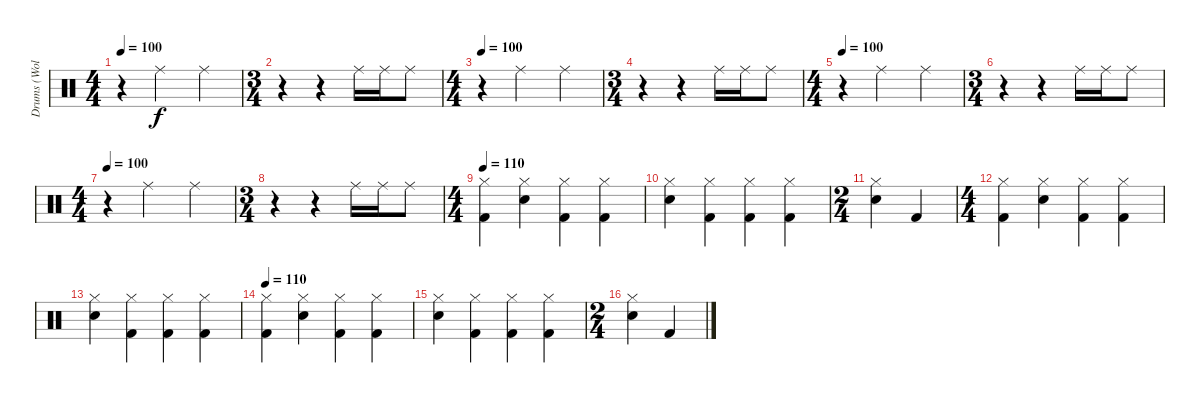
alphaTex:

\track ("Drums (Wolf Simons)" "Drums (Wol") {instrument percussion}
\staff {score}
\articulation defaults
\ts (4 4)
\tempo 100
\clef neutral
\ks c
r.4{dy f} "Ride (middle)".2 "Ride (middle)".4 |
\ts (3 4)
r.4 r.4 "Ride (middle)".16 "Ride (middle)".16 "Ride (middle)".8 |
\ts (4 4)
\tempo 100
r.4 "Ride (middle)".2 "Ride (middle)".4 |
\ts (3 4)
r.4 r.4 "Ride (middle)".16 "Ride (middle)".16 "Ride (middle)".8 |
\ts (4 4)
\tempo 100
r.4 "Ride (middle)".2 "Ride (middle)".4 |
\ts (3 4)
r.4 r.4 "Ride (middle)".16 "Ride (middle)".16 "Ride (middle)".8 |
\ts (4 4)
\tempo 100
r.4 "Ride (middle)".2 "Ride (middle)".4 |
\ts (3 4)
r.4 r.4 "Ride (middle)".16 "Ride (middle)".16 "Ride (middle)".8 |
\ts (4 4)
\tempo 110
("Hi-Hat (closed)" "Kick (hit) 2").4 ("Hi-Hat (closed)" "Electric Snare (hit)").4 ("Hi-Hat (closed)" "Kick (hit) 2").4 ("Hi-Hat (closed)" "Kick (hit) 2").4 |
("Hi-Hat (closed)" "Electric Snare (hit)").4 ("Hi-Hat (closed)" "Kick (hit) 2").4 ("Hi-Hat (closed)" "Kick (hit) 2").4 ("Hi-Hat (closed)" "Kick (hit) 2").4 |
\ts (2 4)
("Hi-Hat (closed)" "Electric Snare (hit)").4 "Kick (hit) 2".4 |
\ts (4 4)
("Hi-Hat (closed)" "Kick (hit) 2").4 ("Hi-Hat (closed)" "Electric Snare (hit)").4 ("Hi-Hat (closed)" "Kick (hit) 2").4 ("Hi-Hat (closed)" "Kick (hit) 2").4 |
("Hi-Hat (closed)" "Electric Snare (hit)").4 ("Hi-Hat (closed)" "Kick (hit) 2").4 ("Hi-Hat (closed)" "Kick (hit) 2").4 ("Hi-Hat (closed)" "Kick (hit) 2").4 |
\tempo 110
("Hi-Hat (closed)" "Kick (hit) 2").4 ("Hi-Hat (closed)" "Electric Snare (hit)").4 ("Hi-Hat (closed)" "Kick (hit) 2").4 ("Hi-Hat (closed)" "Kick (hit) 2").4 |
("Hi-Hat (closed)" "Electric Snare (hit)").4 ("Hi-Hat (closed)" "Kick (hit) 2").4 ("Hi-Hat (closed)" "Kick (hit) 2").4 ("Hi-Hat (closed)" "Kick (hit) 2").4 |
\ts (2 4)
("Hi-Hat (closed)" "Electric Snare (hit)").4 "Kick (hit) 2".4
